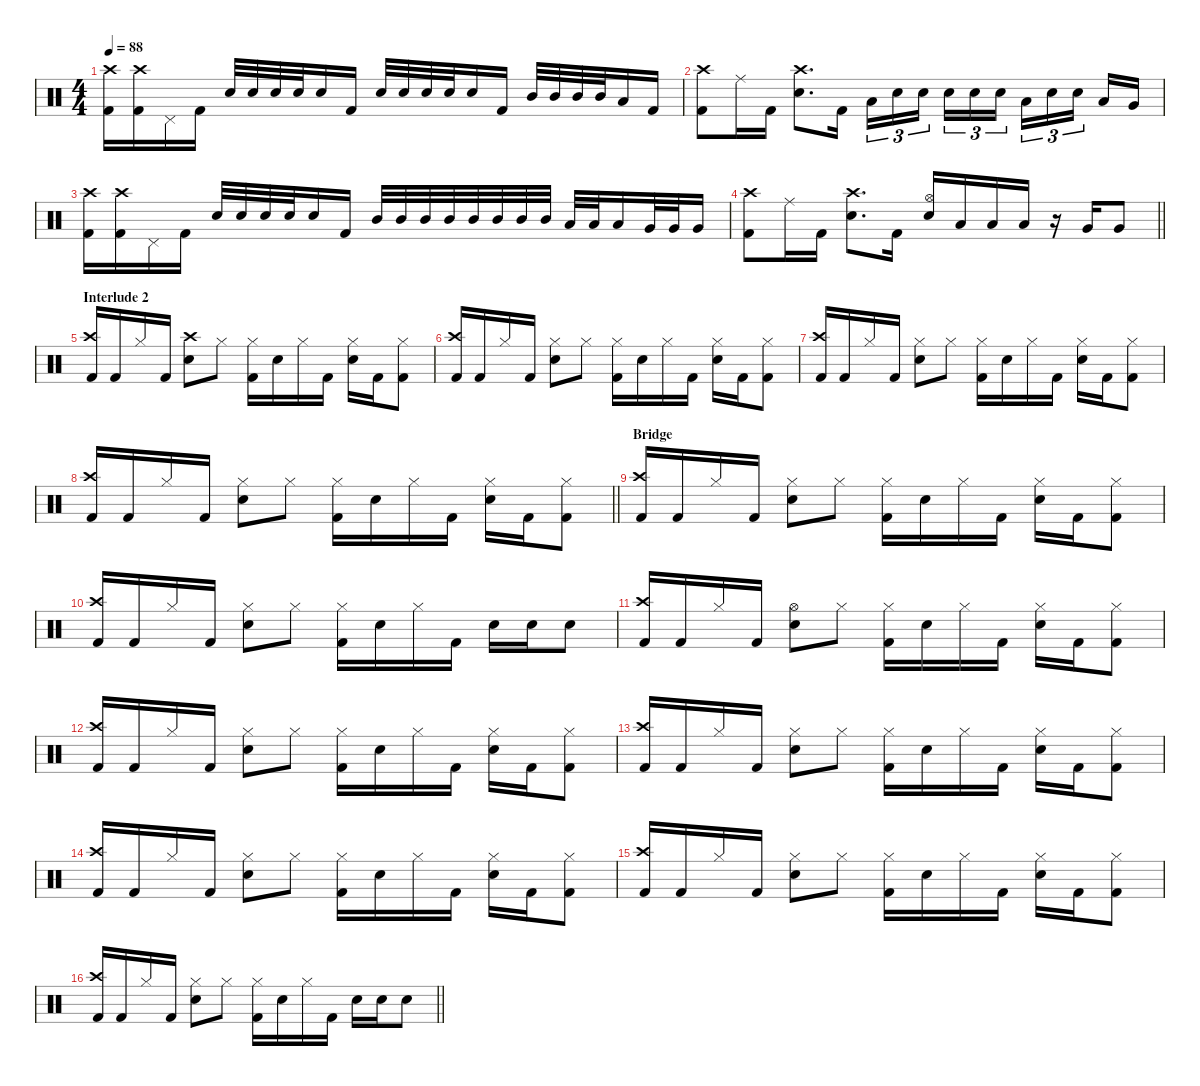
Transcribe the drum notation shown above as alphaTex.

\defaultSystemsLayout 4
\hideDynamics
\bracketExtendMode nobrackets
\singleTrackTrackNamePolicy hidden
\multiTrackTrackNamePolicy hidden
\firstSystemTrackNameMode fullname
\firstSystemTrackNameOrientation horizontal
\otherSystemsTrackNameOrientation horizontal
\track ("Drums" "drm.") {instrument percussion}
\staff {score}
\articulation defaults
\ts (4 4)
\tempo 88
\clef neutral
\ks c
("Crash high (hit)" "Kick (hit) 2").16{dy f beam Down} ("Crash high (hit)" "Kick (hit) 2").16{beam Down} "Pedal Hi-Hat (hit)".16{beam Down} "Kick (hit) 2".16{beam Down} "Snare (hit) 2".32{beam Up} "Snare (hit) 2".32{beam Up} "Snare (hit) 2".32{beam Up} "Snare (hit) 2".32{beam Up} "Snare (hit) 2".16{beam Up} "Kick (hit) 2".16{beam Up} "Snare (hit) 2".32{beam Up} "Snare (hit) 2".32{beam Up} "Snare (hit) 2".32{beam Up} "Snare (hit) 2".32{beam Up} "Snare (hit) 2".16{beam Up} "Kick (hit) 2".16{beam Up} "Mid Tom (hit)".32{beam Up} "Mid Tom (hit)".32{dy mf beam Up} "Mid Tom (hit)".32{dy mp beam Up} "Mid Tom (hit)".32{beam Up} "Low Tom (hit)".16{dy f beam Up} "Kick (hit) 2".16{beam Up} |
("Crash high (hit)" "Kick (hit) 2").8{beam Down} "Ride (middle)".16{beam Down} "Kick (hit) 2".16{beam Down} ("Crash high (hit)" "Snare (hit) 2").8{d beam Down} "Kick (hit) 2".16{beam Down} "Low Tom (hit)".16{tu (3 2) beam Down} "Snare (hit) 2".16{tu (3 2) beam Down} "Snare (hit) 2".16{tu (3 2) beam Down} "Snare (hit) 2".16{tu (3 2) beam Down} "Snare (hit) 2".16{tu (3 2) beam Down} "Snare (hit) 2".16{tu (3 2) beam Down} "Low Tom (hit)".16{tu (3 2) beam Down} "Snare (hit) 2".16{tu (3 2) beam Down} "Snare (hit) 2".16{tu (3 2) beam Down} "Low Tom (hit)".16{beam Up} "Very Low Tom (hit)".16{beam Up} |
("Crash high (hit)" "Kick (hit) 2").16{beam Down} ("Crash high (hit)" "Kick (hit) 2").16{beam Down} "Pedal Hi-Hat (hit)".16{beam Down} "Kick (hit) 2".16{beam Down} "Snare (hit) 2".32{beam Up} "Snare (hit) 2".32{beam Up} "Snare (hit) 2".32{beam Up} "Snare (hit) 2".32{beam Up} "Snare (hit) 2".16{beam Up} "Kick (hit) 2".16{beam Up} "Mid Tom (hit)".32{beam Up} "Mid Tom (hit)".32{beam Up} "Mid Tom (hit)".32{beam Up} "Mid Tom (hit)".32{beam Up} "Mid Tom (hit)".32{beam Up} "Mid Tom (hit)".32{dy mf beam Up} "Mid Tom (hit)".32{dy mp beam Up} "Mid Tom (hit)".32{beam Up} "Low Tom (hit)".32{dy f beam Up} "Low Tom (hit)".32{beam Up} "Low Tom (hit)".16{beam Up} "Very Low Tom (hit)".32{beam Up} "Very Low Tom (hit)".32{beam Up} "Very Low Tom (hit)".16{beam Up} |
\barLineRight lightlight
("Crash high (hit)" "Kick (hit) 2").8{beam Down} "Ride (middle)".16{beam Down} "Kick (hit) 2".16{beam Down} ("Crash high (hit)" "Snare (hit) 2").8{d beam Down} "Kick (hit) 2".16{beam Down} ("Hi-Hat (open)" "Snare (hit) 2").16{beam Up} "Low Tom (hit)".16{beam Up} "Low Tom (hit)".16{beam Up} "Low Tom (hit)".16{beam Up} r.16{beam Up} "Very Low Tom (hit)".16{beam Up} "Very Low Tom (hit)".8{beam Up} |
\section ("" "Interlude 2")
("Crash high (hit)" "Kick (hit) 2").16{beam Up} "Kick (hit) 2".16{beam Up} "Hi-Hat (closed)".16{beam Up} "Kick (hit) 2".16{beam Up} ("Crash high (hit)" "Snare (hit) 2").8{beam Down} "Hi-Hat (closed)".8{beam Down} ("Hi-Hat (closed)" "Kick (hit) 2").16{beam Down} "Snare (hit) 2".16{beam Down} "Hi-Hat (closed)".16{beam Down} "Kick (hit) 2".16{beam Down} ("Hi-Hat (closed)" "Snare (hit) 2").16{beam Down} "Kick (hit) 2".16{beam Down} ("Hi-Hat (closed)" "Kick (hit) 2").8{beam Down} |
("Crash high (hit)" "Kick (hit) 2").16{beam Up} "Kick (hit) 2".16{beam Up} "Hi-Hat (closed)".16{beam Up} "Kick (hit) 2".16{beam Up} ("Hi-Hat (closed)" "Snare (hit) 2").8{beam Down} "Hi-Hat (closed)".8{beam Down} ("Hi-Hat (closed)" "Kick (hit) 2").16{beam Down} "Snare (hit) 2".16{beam Down} "Hi-Hat (closed)".16{beam Down} "Kick (hit) 2".16{beam Down} ("Hi-Hat (closed)" "Snare (hit) 2").16{beam Down} "Kick (hit) 2".16{beam Down} ("Hi-Hat (closed)" "Kick (hit) 2").8{beam Down} |
("Crash high (hit)" "Kick (hit) 2").16{beam Up} "Kick (hit) 2".16{beam Up} "Hi-Hat (closed)".16{beam Up} "Kick (hit) 2".16{beam Up} ("Hi-Hat (closed)" "Snare (hit) 2").8{beam Down} "Hi-Hat (closed)".8{beam Down} ("Hi-Hat (closed)" "Kick (hit) 2").16{beam Down} "Snare (hit) 2".16{beam Down} "Hi-Hat (closed)".16{beam Down} "Kick (hit) 2".16{beam Down} ("Hi-Hat (closed)" "Snare (hit) 2").16{beam Down} "Kick (hit) 2".16{beam Down} ("Hi-Hat (closed)" "Kick (hit) 2").8{beam Down} |
\barLineRight lightlight
("Crash high (hit)" "Kick (hit) 2").16{beam Up} "Kick (hit) 2".16{beam Up} "Hi-Hat (closed)".16{beam Up} "Kick (hit) 2".16{beam Up} ("Hi-Hat (closed)" "Snare (hit) 2").8{beam Down} "Hi-Hat (closed)".8{beam Down} ("Hi-Hat (closed)" "Kick (hit) 2").16{beam Down} "Snare (hit) 2".16{beam Down} "Hi-Hat (closed)".16{beam Down} "Kick (hit) 2".16{beam Down} ("Hi-Hat (closed)" "Snare (hit) 2").16{beam Down} "Kick (hit) 2".16{beam Down} ("Hi-Hat (closed)" "Kick (hit) 2").8{beam Down} |
\section ("" "Bridge")
("Crash high (hit)" "Kick (hit) 2").16{beam Up} "Kick (hit) 2".16{beam Up} "Hi-Hat (closed)".16{beam Up} "Kick (hit) 2".16{beam Up} ("Hi-Hat (closed)" "Snare (hit) 2").8{beam Down} "Hi-Hat (closed)".8{beam Down} ("Hi-Hat (closed)" "Kick (hit) 2").16{beam Down} "Snare (hit) 2".16{beam Down} "Hi-Hat (closed)".16{beam Down} "Kick (hit) 2".16{beam Down} ("Hi-Hat (closed)" "Snare (hit) 2").16{beam Down} "Kick (hit) 2".16{beam Down} ("Hi-Hat (closed)" "Kick (hit) 2").8{beam Down} |
("Crash high (hit)" "Kick (hit) 2").16{beam Up} "Kick (hit) 2".16{beam Up} "Hi-Hat (closed)".16{beam Up} "Kick (hit) 2".16{beam Up} ("Hi-Hat (closed)" "Snare (hit) 2").8{beam Down} "Hi-Hat (closed)".8{beam Down} ("Hi-Hat (closed)" "Kick (hit) 2").16{beam Down} "Snare (hit) 2".16{beam Down} "Hi-Hat (closed)".16{beam Down} "Kick (hit) 2".16{beam Down} "Snare (hit) 2".16{beam Down} "Snare (hit) 2".16{beam Down} "Snare (hit) 2".8{beam Down} |
("Crash high (hit)" "Kick (hit) 2").16{beam Up} "Kick (hit) 2".16{beam Up} "Hi-Hat (closed)".16{beam Up} "Kick (hit) 2".16{beam Up} ("Hi-Hat (open)" "Snare (hit) 2").8{beam Down} "Hi-Hat (closed)".8{beam Down} ("Hi-Hat (closed)" "Kick (hit) 2").16{beam Down} "Snare (hit) 2".16{beam Down} "Hi-Hat (closed)".16{beam Down} "Kick (hit) 2".16{beam Down} ("Hi-Hat (closed)" "Snare (hit) 2").16{beam Down} "Kick (hit) 2".16{beam Down} ("Hi-Hat (closed)" "Kick (hit) 2").8{beam Down} |
("Crash high (hit)" "Kick (hit) 2").16{beam Up} "Kick (hit) 2".16{beam Up} "Hi-Hat (closed)".16{beam Up} "Kick (hit) 2".16{beam Up} ("Hi-Hat (closed)" "Snare (hit) 2").8{beam Down} "Hi-Hat (closed)".8{beam Down} ("Hi-Hat (closed)" "Kick (hit) 2").16{beam Down} "Snare (hit) 2".16{beam Down} "Hi-Hat (closed)".16{beam Down} "Kick (hit) 2".16{beam Down} ("Hi-Hat (closed)" "Snare (hit) 2").16{beam Down} "Kick (hit) 2".16{beam Down} ("Hi-Hat (closed)" "Kick (hit) 2").8{beam Down} |
("Crash high (hit)" "Kick (hit) 2").16{beam Up} "Kick (hit) 2".16{beam Up} "Hi-Hat (closed)".16{beam Up} "Kick (hit) 2".16{beam Up} ("Hi-Hat (closed)" "Snare (hit) 2").8{beam Down} "Hi-Hat (closed)".8{beam Down} ("Hi-Hat (closed)" "Kick (hit) 2").16{beam Down} "Snare (hit) 2".16{beam Down} "Hi-Hat (closed)".16{beam Down} "Kick (hit) 2".16{beam Down} ("Hi-Hat (closed)" "Snare (hit) 2").16{beam Down} "Kick (hit) 2".16{beam Down} ("Hi-Hat (closed)" "Kick (hit) 2").8{beam Down} |
("Crash high (hit)" "Kick (hit) 2").16{beam Up} "Kick (hit) 2".16{beam Up} "Hi-Hat (closed)".16{beam Up} "Kick (hit) 2".16{beam Up} ("Hi-Hat (closed)" "Snare (hit) 2").8{beam Down} "Hi-Hat (closed)".8{beam Down} ("Hi-Hat (closed)" "Kick (hit) 2").16{beam Down} "Snare (hit) 2".16{beam Down} "Hi-Hat (closed)".16{beam Down} "Kick (hit) 2".16{beam Down} ("Hi-Hat (closed)" "Snare (hit) 2").16{beam Down} "Kick (hit) 2".16{beam Down} ("Hi-Hat (closed)" "Kick (hit) 2").8{beam Down} |
("Crash high (hit)" "Kick (hit) 2").16{beam Up} "Kick (hit) 2".16{beam Up} "Hi-Hat (closed)".16{beam Up} "Kick (hit) 2".16{beam Up} ("Hi-Hat (closed)" "Snare (hit) 2").8{beam Down} "Hi-Hat (closed)".8{beam Down} ("Hi-Hat (closed)" "Kick (hit) 2").16{beam Down} "Snare (hit) 2".16{beam Down} "Hi-Hat (closed)".16{beam Down} "Kick (hit) 2".16{beam Down} ("Hi-Hat (closed)" "Snare (hit) 2").16{beam Down} "Kick (hit) 2".16{beam Down} ("Hi-Hat (closed)" "Kick (hit) 2").8{beam Down} |
\barLineRight lightlight
("Crash high (hit)" "Kick (hit) 2").16{beam Up} "Kick (hit) 2".16{beam Up} "Hi-Hat (closed)".16{beam Up} "Kick (hit) 2".16{beam Up} ("Hi-Hat (closed)" "Snare (hit) 2").8{beam Down} "Hi-Hat (closed)".8{beam Down} ("Hi-Hat (closed)" "Kick (hit) 2").16{beam Down} "Snare (hit) 2".16{beam Down} "Hi-Hat (closed)".16{beam Down} "Kick (hit) 2".16{beam Down} "Snare (hit) 2".16{beam Down} "Snare (hit) 2".16{beam Down} "Snare (hit) 2".8{beam Down}
